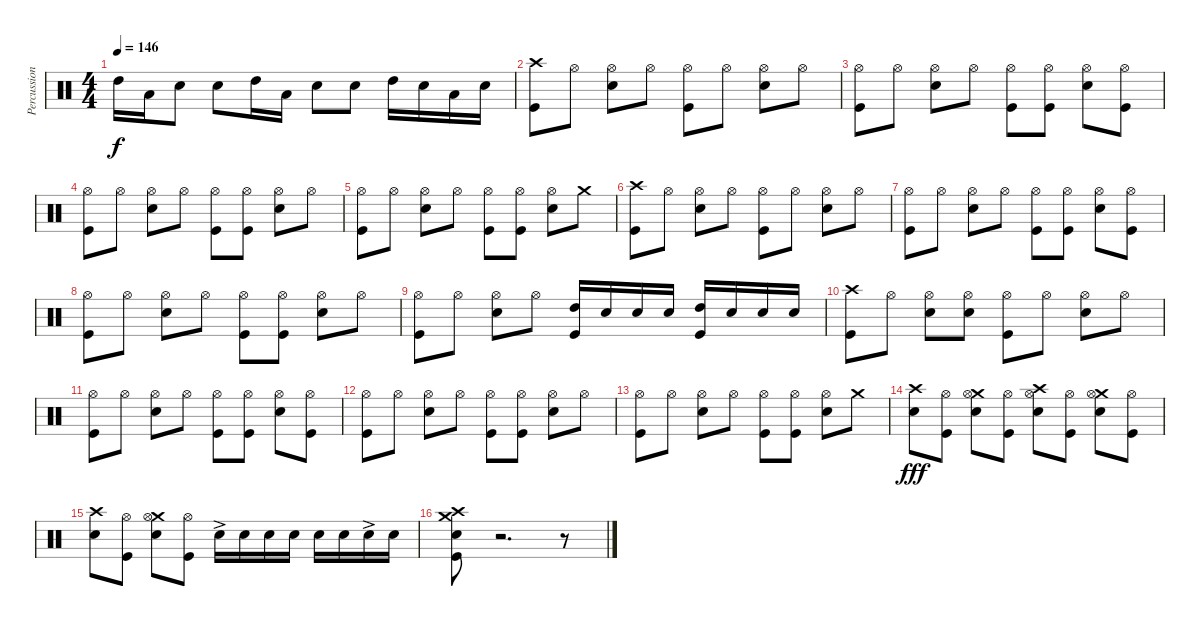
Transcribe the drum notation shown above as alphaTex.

\track ("Percussion" "Percussion") {instrument percussion}
\staff {score}
\articulation defaults
\ts (4 4)
\tempo 146
\clef neutral
\ks c "High Tom (hit)".16{dy f} "Low Tom (hit)".16 "Snare (hit) 2".8 "Snare (hit) 2".8 "High Tom (hit)".16 "Low Tom (hit)".16 "Snare (hit) 2".8 "Snare (hit) 2".8 "High Tom (hit)".16 "Snare (hit) 2".16 "Low Tom (hit)".16 "Snare (hit) 2".16
|
("Crash high (hit)" "Kick (hit)").8 "Hi-Hat (open)".8 ("Hi-Hat (open)" "Snare (hit) 2").8 "Hi-Hat (open)".8 ("Hi-Hat (open)" "Kick (hit)").8 "Hi-Hat (open)".8 ("Hi-Hat (open)" "Snare (hit) 2").8 "Hi-Hat (open)".8 |
("Hi-Hat (open)" "Kick (hit)").8 "Hi-Hat (open)".8 ("Hi-Hat (open)" "Snare (hit) 2").8 "Hi-Hat (open)".8 ("Hi-Hat (open)" "Kick (hit)").8 ("Hi-Hat (open)" "Kick (hit)").8 ("Hi-Hat (open)" "Snare (hit) 2").8 ("Hi-Hat (open)" "Kick (hit)").8 |
("Hi-Hat (open)" "Kick (hit)").8 "Hi-Hat (open)".8 ("Hi-Hat (open)" "Snare (hit) 2").8 "Hi-Hat (open)".8 ("Hi-Hat (open)" "Kick (hit)").8 ("Hi-Hat (open)" "Kick (hit)").8 ("Hi-Hat (open)" "Snare (hit) 2").8 "Hi-Hat (open)".8 |
("Hi-Hat (open)" "Kick (hit)").8 "Hi-Hat (open)".8 ("Hi-Hat (open)" "Snare (hit) 2").8 "Hi-Hat (open)".8 ("Hi-Hat (open)" "Kick (hit)").8 ("Hi-Hat (open)" "Kick (hit)").8 ("Hi-Hat (open)" "Snare (hit) 2").8 "Crash medium (hit)".8 |
("Crash high (hit)" "Kick (hit)").8 "Hi-Hat (open)".8 ("Hi-Hat (open)" "Snare (hit) 2").8 "Hi-Hat (open)".8 ("Hi-Hat (open)" "Kick (hit)").8 "Hi-Hat (open)".8 ("Hi-Hat (open)" "Snare (hit) 2").8 "Hi-Hat (open)".8 |
("Hi-Hat (open)" "Kick (hit)").8 "Hi-Hat (open)".8 ("Hi-Hat (open)" "Snare (hit) 2").8 "Hi-Hat (open)".8 ("Hi-Hat (open)" "Kick (hit)").8 ("Hi-Hat (open)" "Kick (hit)").8 ("Hi-Hat (open)" "Snare (hit) 2").8 ("Hi-Hat (open)" "Kick (hit)").8 |
("Hi-Hat (open)" "Kick (hit)").8 "Hi-Hat (open)".8 ("Hi-Hat (open)" "Snare (hit) 2").8 "Hi-Hat (open)".8 ("Hi-Hat (open)" "Kick (hit)").8 ("Hi-Hat (open)" "Kick (hit)").8 ("Hi-Hat (open)" "Snare (hit) 2").8 "Hi-Hat (open)".8 |
("Hi-Hat (open)" "Kick (hit)").8 "Hi-Hat (open)".8 ("Hi-Hat (open)" "Snare (hit) 2").8 "Hi-Hat (open)".8 ("High Tom (hit)" "Kick (hit)").16 "Snare (hit) 2".16 "Snare (hit) 2".16 "Snare (hit) 2".16 ("High Tom (hit)" "Kick (hit)").16 "Snare (hit) 2".16 "Snare (hit) 2".16 "Snare (hit) 2".16 |
("Crash high (hit)" "Kick (hit)").8 "Hi-Hat (open)".8 ("Hi-Hat (open)" "Snare (hit) 2").8 ("Hi-Hat (open)" "Snare (hit) 2").8 ("Hi-Hat (open)" "Kick (hit)").8 "Hi-Hat (open)".8 ("Hi-Hat (open)" "Snare (hit) 2").8 "Hi-Hat (open)".8 |
("Hi-Hat (open)" "Kick (hit)").8 "Hi-Hat (open)".8 ("Hi-Hat (open)" "Snare (hit) 2").8 "Hi-Hat (open)".8 ("Hi-Hat (open)" "Kick (hit)").8 ("Hi-Hat (open)" "Kick (hit)").8 ("Hi-Hat (open)" "Snare (hit) 2").8 ("Hi-Hat (open)" "Kick (hit)").8 |
("Hi-Hat (open)" "Kick (hit)").8 "Hi-Hat (open)".8 ("Hi-Hat (open)" "Snare (hit) 2").8 "Hi-Hat (open)".8 ("Hi-Hat (open)" "Kick (hit)").8 ("Hi-Hat (open)" "Kick (hit)").8 ("Hi-Hat (open)" "Snare (hit) 2").8 "Hi-Hat (open)".8 |
("Hi-Hat (open)" "Kick (hit)").8 "Hi-Hat (open)".8 ("Hi-Hat (open)" "Snare (hit) 2").8 "Hi-Hat (open)".8 ("Hi-Hat (open)" "Kick (hit)").8 ("Hi-Hat (open)" "Kick (hit)").8 ("Hi-Hat (open)" "Snare (hit) 2").8 "Crash medium (hit)".8 |
("Crash high (hit)" "Snare (hit) 2").8{dy fff} ("Hi-Hat (open)" "Kick (hit)").8 ("Crash medium (hit)" "Hi-Hat (open)" "Snare (hit) 2").8 ("Hi-Hat (open)" "Kick (hit)").8 ("Crash high (hit)" "Hi-Hat (open)" "Snare (hit) 2").8 ("Hi-Hat (open)" "Kick (hit)").8 ("Crash medium (hit)" "Hi-Hat (open)" "Snare (hit) 2").8 ("Hi-Hat (open)" "Kick (hit)").8 |
("Crash high (hit)" "Snare (hit) 2").8 ("Hi-Hat (open)" "Kick (hit)").8 ("Crash medium (hit)" "Hi-Hat (open)" "Snare (hit) 2").8 ("Hi-Hat (open)" "Kick (hit)").8 "Snare (hit) 2"{ac}.16 "Snare (hit) 2".16 "Snare (hit) 2".16 "Snare (hit) 2".16 "Snare (hit) 2".16 "Snare (hit) 2".16 "Snare (hit) 2"{ac}.16 "Snare (hit) 2".16 |
("Crash high (hit)" "Crash medium (hit)" "Snare (hit) 2" "Kick (hit)").8 r.2{d} r.8
